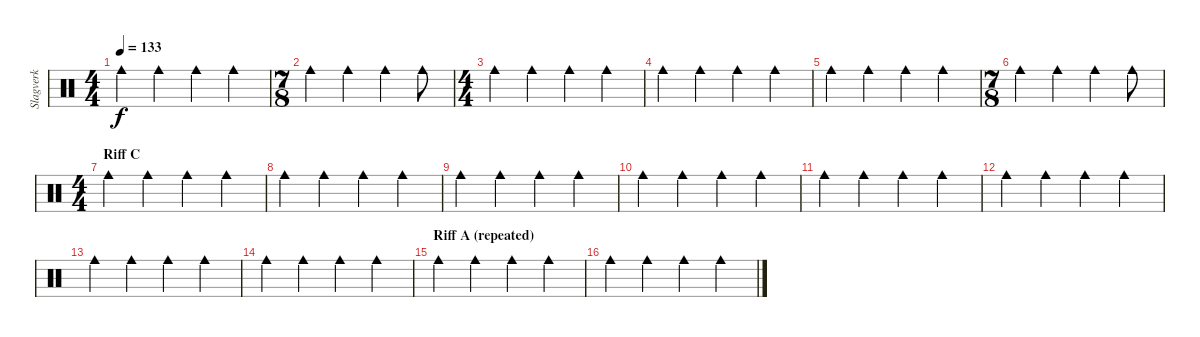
\track ("Slagverk" "Slagverk") {instrument percussion}
\staff {score}
\articulation defaults
\ts (4 4)
\tempo 133
\clef neutral
\ks c "Cowbell medium (hit)".4{dy f} "Cowbell medium (hit)".4 "Cowbell medium (hit)".4 "Cowbell medium (hit)".4
|
\ts (7 8)
"Cowbell medium (hit)".4 "Cowbell medium (hit)".4 "Cowbell medium (hit)".4 "Cowbell medium (hit)".8 |
\ts (4 4)
"Cowbell medium (hit)".4 "Cowbell medium (hit)".4 "Cowbell medium (hit)".4 "Cowbell medium (hit)".4 |
"Cowbell medium (hit)".4 "Cowbell medium (hit)".4 "Cowbell medium (hit)".4 "Cowbell medium (hit)".4 |
"Cowbell medium (hit)".4 "Cowbell medium (hit)".4 "Cowbell medium (hit)".4 "Cowbell medium (hit)".4 |
\ts (7 8)
"Cowbell medium (hit)".4 "Cowbell medium (hit)".4 "Cowbell medium (hit)".4 "Cowbell medium (hit)".8 |
\ts (4 4)
\section ("" "Riff C")
"Cowbell medium (hit)".4 "Cowbell medium (hit)".4 "Cowbell medium (hit)".4 "Cowbell medium (hit)".4 |
"Cowbell medium (hit)".4 "Cowbell medium (hit)".4 "Cowbell medium (hit)".4 "Cowbell medium (hit)".4 |
"Cowbell medium (hit)".4 "Cowbell medium (hit)".4 "Cowbell medium (hit)".4 "Cowbell medium (hit)".4 |
"Cowbell medium (hit)".4 "Cowbell medium (hit)".4 "Cowbell medium (hit)".4 "Cowbell medium (hit)".4 |
"Cowbell medium (hit)".4 "Cowbell medium (hit)".4 "Cowbell medium (hit)".4 "Cowbell medium (hit)".4 |
"Cowbell medium (hit)".4 "Cowbell medium (hit)".4 "Cowbell medium (hit)".4 "Cowbell medium (hit)".4 |
"Cowbell medium (hit)".4 "Cowbell medium (hit)".4 "Cowbell medium (hit)".4 "Cowbell medium (hit)".4 |
"Cowbell medium (hit)".4 "Cowbell medium (hit)".4 "Cowbell medium (hit)".4 "Cowbell medium (hit)".4 |
\section ("" "Riff A (repeated)")
"Cowbell medium (hit)".4 "Cowbell medium (hit)".4 "Cowbell medium (hit)".4 "Cowbell medium (hit)".4 |
"Cowbell medium (hit)".4 "Cowbell medium (hit)".4 "Cowbell medium (hit)".4 "Cowbell medium (hit)".4
